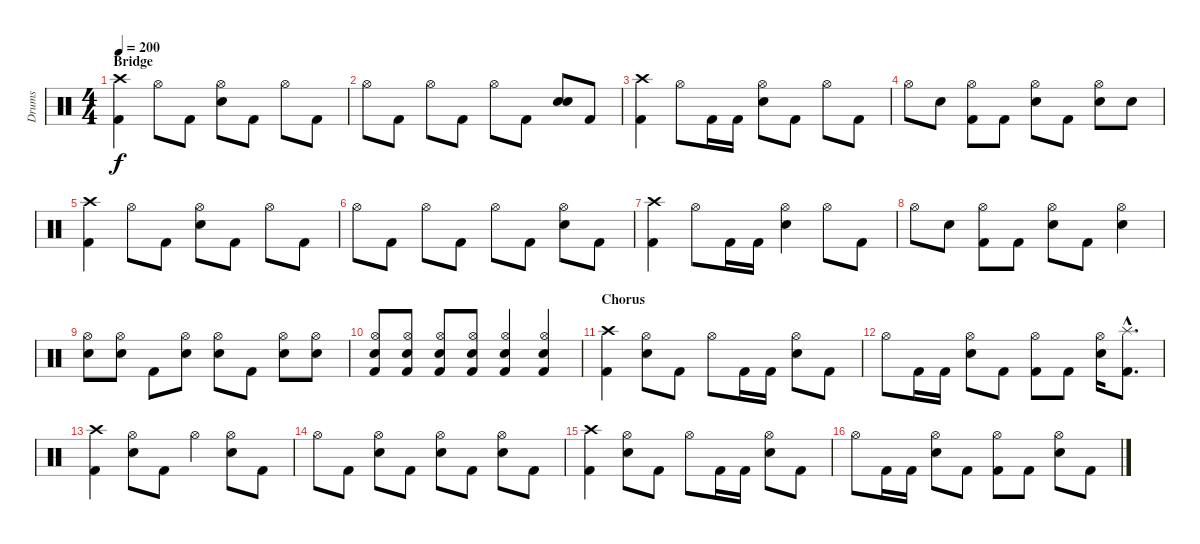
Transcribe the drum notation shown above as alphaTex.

\track ("Drums" "Drums") {instrument percussion}
\staff {score}
\articulation defaults
\ts (4 4)
\section ("" "Bridge")
\tempo 200
\clef neutral
\ks c
("Kick (hit) 2" "Crash high (hit)").4{dy f} "Hi-Hat (open)".8 "Kick (hit) 2".8 ("Electric Snare (hit)" "Hi-Hat (open)").8 "Kick (hit) 2".8 "Hi-Hat (open)".8 "Kick (hit) 2".8 |
"Hi-Hat (open)".8 "Kick (hit) 2".8 "Hi-Hat (open)".8 "Kick (hit) 2".8 "Hi-Hat (open)".8 "Kick (hit) 2".8 ("Electric Snare (hit)" "Electric Snare (hit)").8 "Kick (hit) 2".8 |
("Kick (hit) 2" "Crash high (hit)").4 "Hi-Hat (open)".8 "Kick (hit) 2".16 "Kick (hit) 2".16 ("Electric Snare (hit)" "Hi-Hat (open)").8 "Kick (hit) 2".8 "Hi-Hat (open)".8 "Kick (hit) 2".8 |
"Hi-Hat (open)".8 "Electric Snare (hit)".8 ("Kick (hit) 2" "Hi-Hat (open)").8 "Kick (hit) 2".8 ("Electric Snare (hit)" "Hi-Hat (open)").8 "Kick (hit) 2".8 ("Electric Snare (hit)" "Hi-Hat (open)").8 "Electric Snare (hit)".8 |
("Kick (hit) 2" "Crash high (hit)").4 "Hi-Hat (open)".8 "Kick (hit) 2".8 ("Electric Snare (hit)" "Hi-Hat (open)").8 "Kick (hit) 2".8 "Hi-Hat (open)".8 "Kick (hit) 2".8 |
"Hi-Hat (open)".8 "Kick (hit) 2".8 "Hi-Hat (open)".8 "Kick (hit) 2".8 "Hi-Hat (open)".8 "Kick (hit) 2".8 ("Electric Snare (hit)" "Hi-Hat (open)").8 "Kick (hit) 2".8 |
("Kick (hit) 2" "Crash high (hit)").4 "Hi-Hat (open)".8 "Kick (hit) 2".16 "Kick (hit) 2".16 ("Electric Snare (hit)" "Hi-Hat (open)").4 "Hi-Hat (open)".8 "Kick (hit) 2".8 |
"Hi-Hat (open)".8 "Electric Snare (hit)".8 ("Kick (hit) 2" "Hi-Hat (open)").8 "Kick (hit) 2".8 ("Electric Snare (hit)" "Hi-Hat (open)").8 "Kick (hit) 2".8 ("Electric Snare (hit)" "Hi-Hat (open)").4 |
("Electric Snare (hit)" "Hi-Hat (open)").8 ("Electric Snare (hit)" "Hi-Hat (open)").8 "Kick (hit) 2".8 ("Electric Snare (hit)" "Hi-Hat (open)").8 ("Electric Snare (hit)" "Hi-Hat (open)").8 "Kick (hit) 2".8 ("Electric Snare (hit)" "Hi-Hat (open)").8 ("Electric Snare (hit)" "Hi-Hat (open)").8 |
("Kick (hit) 2" "Electric Snare (hit)" "Hi-Hat (open)").8 ("Kick (hit) 2" "Electric Snare (hit)" "Hi-Hat (open)").8 ("Kick (hit) 2" "Electric Snare (hit)" "Hi-Hat (open)").8 ("Kick (hit) 2" "Electric Snare (hit)" "Hi-Hat (open)").8 ("Kick (hit) 2" "Electric Snare (hit)" "Hi-Hat (open)").4 ("Kick (hit) 2" "Electric Snare (hit)" "Hi-Hat (open)").4 |
\section ("" "Chorus")
("Kick (hit) 2" "Crash high (hit)").4 ("Electric Snare (hit)" "Hi-Hat (open)").8 "Kick (hit) 2".8 "Hi-Hat (open)".8 "Kick (hit) 2".16 "Kick (hit) 2".16 ("Electric Snare (hit)" "Hi-Hat (open)").8 "Kick (hit) 2".8 |
"Hi-Hat (open)".8 "Kick (hit) 2".16 "Kick (hit) 2".16 ("Electric Snare (hit)" "Hi-Hat (open)").8 "Kick (hit) 2".8 ("Kick (hit) 2" "Hi-Hat (open)").8 "Kick (hit) 2".8 ("Electric Snare (hit)" "Hi-Hat (open)").16 ("Kick (hit) 2"{hac} "Splash (hit)"{hac}).8{d} |
("Kick (hit) 2" "Crash high (hit)").4 ("Electric Snare (hit)" "Hi-Hat (open)").8 "Kick (hit) 2".8 "Hi-Hat (open)".4 ("Electric Snare (hit)" "Hi-Hat (open)").8 "Kick (hit) 2".8 |
"Hi-Hat (open)".8 "Kick (hit) 2".8 ("Electric Snare (hit)" "Hi-Hat (open)").8 "Kick (hit) 2".8 ("Electric Snare (hit)" "Hi-Hat (open)").8 "Kick (hit) 2".8 ("Electric Snare (hit)" "Hi-Hat (open)").8 "Kick (hit) 2".8 |
("Kick (hit) 2" "Crash high (hit)").4 ("Electric Snare (hit)" "Hi-Hat (open)").8 "Kick (hit) 2".8 "Hi-Hat (open)".8 "Kick (hit) 2".16 "Kick (hit) 2".16 ("Electric Snare (hit)" "Hi-Hat (open)").8 "Kick (hit) 2".8 |
"Hi-Hat (open)".8 "Kick (hit) 2".16 "Kick (hit) 2".16 ("Electric Snare (hit)" "Hi-Hat (open)").8 "Kick (hit) 2".8 ("Kick (hit) 2" "Hi-Hat (open)").8 "Kick (hit) 2".8 ("Electric Snare (hit)" "Hi-Hat (open)").8 "Kick (hit) 2".8
